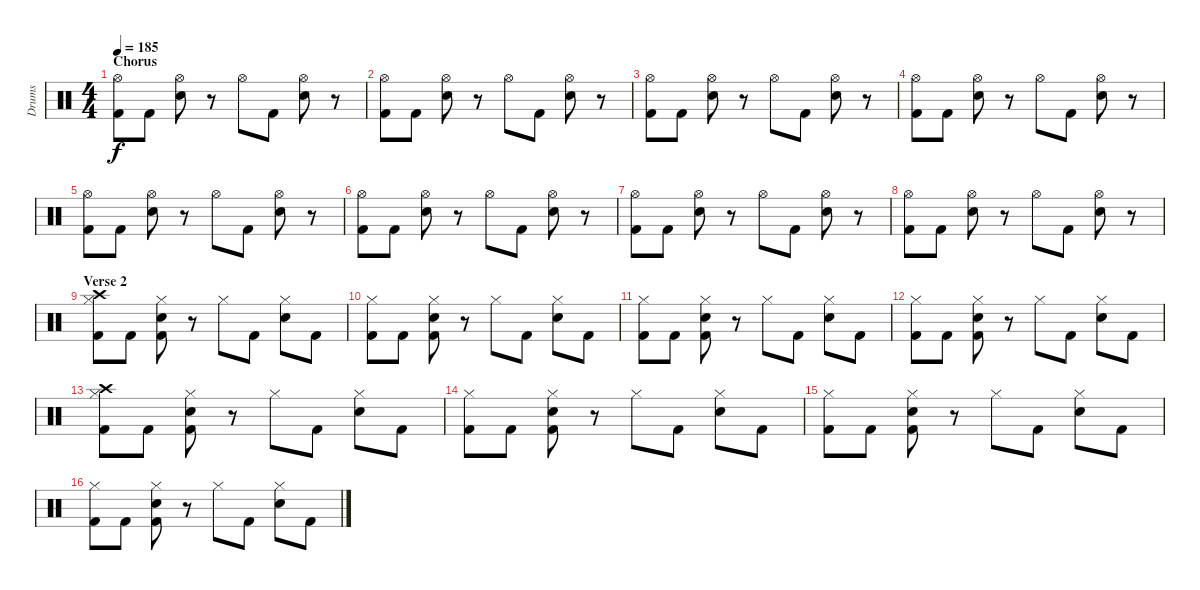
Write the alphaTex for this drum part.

\track ("Drums" "Drums") {instrument percussion}
\staff {score}
\articulation defaults
\ts (4 4)
\section ("" "Chorus")
\tempo 185
\clef neutral
\ks c
("Hi-Hat (open)" "Kick (hit) 2").8{dy f volume 11} "Kick (hit) 2".8 ("Hi-Hat (open)" "Electric Snare (hit)").8 r.8 "Hi-Hat (open)".8 "Kick (hit) 2".8 ("Hi-Hat (open)" "Electric Snare (hit)").8 r.8 |
("Hi-Hat (open)" "Kick (hit) 2").8 "Kick (hit) 2".8 ("Hi-Hat (open)" "Electric Snare (hit)").8 r.8 "Hi-Hat (open)".8 "Kick (hit) 2".8 ("Hi-Hat (open)" "Electric Snare (hit)").8 r.8 |
("Hi-Hat (open)" "Kick (hit) 2").8 "Kick (hit) 2".8 ("Hi-Hat (open)" "Electric Snare (hit)").8 r.8 "Hi-Hat (open)".8 "Kick (hit) 2".8 ("Hi-Hat (open)" "Electric Snare (hit)").8 r.8 |
("Hi-Hat (open)" "Kick (hit) 2").8 "Kick (hit) 2".8 ("Hi-Hat (open)" "Electric Snare (hit)").8 r.8 "Hi-Hat (open)".8 "Kick (hit) 2".8 ("Hi-Hat (open)" "Electric Snare (hit)").8 r.8 |
("Hi-Hat (open)" "Kick (hit) 2").8 "Kick (hit) 2".8 ("Hi-Hat (open)" "Electric Snare (hit)").8 r.8 "Hi-Hat (open)".8 "Kick (hit) 2".8 ("Hi-Hat (open)" "Electric Snare (hit)").8 r.8 |
("Hi-Hat (open)" "Kick (hit) 2").8 "Kick (hit) 2".8 ("Hi-Hat (open)" "Electric Snare (hit)").8 r.8 "Hi-Hat (open)".8 "Kick (hit) 2".8 ("Hi-Hat (open)" "Electric Snare (hit)").8 r.8 |
("Hi-Hat (open)" "Kick (hit) 2").8 "Kick (hit) 2".8 ("Hi-Hat (open)" "Electric Snare (hit)").8 r.8 "Hi-Hat (open)".8 "Kick (hit) 2".8 ("Hi-Hat (open)" "Electric Snare (hit)").8 r.8 |
("Hi-Hat (open)" "Kick (hit) 2").8 "Kick (hit) 2".8 ("Hi-Hat (open)" "Electric Snare (hit)").8 r.8 "Hi-Hat (open)".8 "Kick (hit) 2".8 ("Hi-Hat (open)" "Electric Snare (hit)").8 r.8 |
\section ("" "Verse 2")
("Hi-Hat (closed)" "Kick (hit) 2" "Crash high (hit)").8 "Kick (hit) 2".8 ("Hi-Hat (closed)" "Kick (hit) 2" "Electric Snare (hit)").8 r.8 "Hi-Hat (closed)".8 "Kick (hit) 2".8 ("Hi-Hat (closed)" "Electric Snare (hit)").8 "Kick (hit) 2".8 |
("Hi-Hat (closed)" "Kick (hit) 2").8 "Kick (hit) 2".8 ("Hi-Hat (closed)" "Kick (hit) 2" "Electric Snare (hit)").8 r.8 "Hi-Hat (closed)".8 "Kick (hit) 2".8 ("Hi-Hat (closed)" "Electric Snare (hit)").8 "Kick (hit) 2".8 |
("Hi-Hat (closed)" "Kick (hit) 2").8 "Kick (hit) 2".8 ("Hi-Hat (closed)" "Kick (hit) 2" "Electric Snare (hit)").8 r.8 "Hi-Hat (closed)".8 "Kick (hit) 2".8 ("Hi-Hat (closed)" "Electric Snare (hit)").8 "Kick (hit) 2".8 |
("Hi-Hat (closed)" "Kick (hit) 2").8 "Kick (hit) 2".8 ("Hi-Hat (closed)" "Kick (hit) 2" "Electric Snare (hit)").8 r.8 "Hi-Hat (closed)".8 "Kick (hit) 2".8 ("Hi-Hat (closed)" "Electric Snare (hit)").8 "Kick (hit) 2".8 |
("Hi-Hat (closed)" "Kick (hit) 2" "Crash high (hit)").8 "Kick (hit) 2".8 ("Hi-Hat (closed)" "Kick (hit) 2" "Electric Snare (hit)").8 r.8 "Hi-Hat (closed)".8 "Kick (hit) 2".8 ("Hi-Hat (closed)" "Electric Snare (hit)").8 "Kick (hit) 2".8 |
("Hi-Hat (closed)" "Kick (hit) 2").8 "Kick (hit) 2".8 ("Hi-Hat (closed)" "Kick (hit) 2" "Electric Snare (hit)").8 r.8 "Hi-Hat (closed)".8 "Kick (hit) 2".8 ("Hi-Hat (closed)" "Electric Snare (hit)").8 "Kick (hit) 2".8 |
("Hi-Hat (closed)" "Kick (hit) 2").8 "Kick (hit) 2".8 ("Hi-Hat (closed)" "Kick (hit) 2" "Electric Snare (hit)").8 r.8 "Hi-Hat (closed)".8 "Kick (hit) 2".8 ("Hi-Hat (closed)" "Electric Snare (hit)").8 "Kick (hit) 2".8 |
("Hi-Hat (closed)" "Kick (hit) 2").8 "Kick (hit) 2".8 ("Hi-Hat (closed)" "Kick (hit) 2" "Electric Snare (hit)").8 r.8 "Hi-Hat (closed)".8 "Kick (hit) 2".8 ("Hi-Hat (closed)" "Electric Snare (hit)").8 "Kick (hit) 2".8
